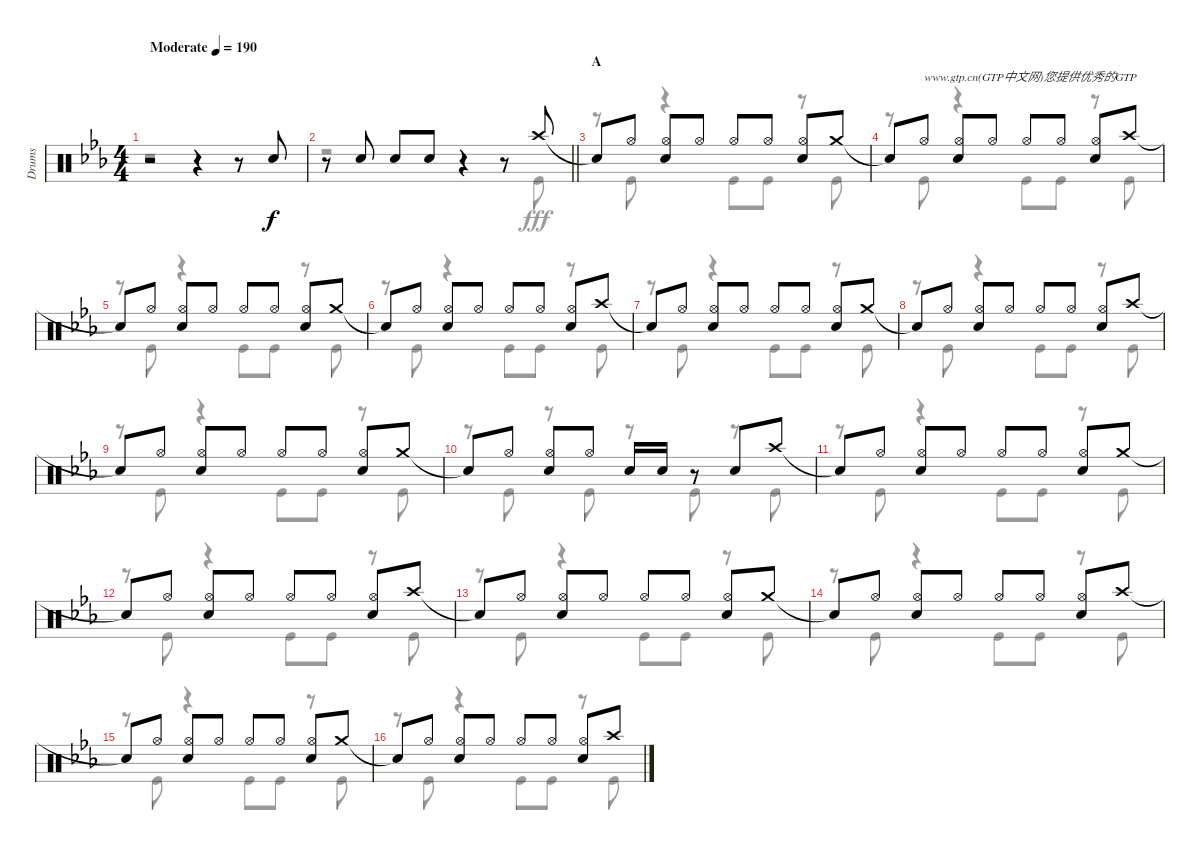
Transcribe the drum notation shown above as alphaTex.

\track ("Drums" "Drums") {instrument percussion}
\staff {score}
\articulation defaults
\voice
\ts (4 4)
\tempo (190 "Moderate")
\clef neutral
\ks eb
r.2{dy f} r.4 r.8 "Snare (hit) 2".8 |
\barLineRight lightlight
r.8 "Snare (hit) 2".8 "Snare (hit) 2".8 "Snare (hit) 2".8 r.4 r.8 "Crash high (hit)".8 |
\section ("" "A")
"Snare (hit)"{t}.8 "Hi-Hat (open)".8 ("Hi-Hat (open)" "Snare (hit) 2").8 "Hi-Hat (open)".8 "Hi-Hat (open)".8 "Hi-Hat (open)".8 ("Hi-Hat (open)" "Snare (hit) 2").8 "Crash medium (hit)".8 |
"Snare (hit)"{t}.8 "Hi-Hat (open)".8{txt "www.gtp.cn(GTP中文网)您提供优秀的GTP"} ("Hi-Hat (open)" "Snare (hit) 2").8 "Hi-Hat (open)".8 "Hi-Hat (open)".8 "Hi-Hat (open)".8 ("Hi-Hat (open)" "Snare (hit) 2").8 "Crash high (hit)".8 |
"Snare (hit)"{t}.8 "Hi-Hat (open)".8 ("Hi-Hat (open)" "Snare (hit) 2").8 "Hi-Hat (open)".8 "Hi-Hat (open)".8 "Hi-Hat (open)".8 ("Hi-Hat (open)" "Snare (hit) 2").8 "Crash medium (hit)".8 |
"Snare (hit)"{t}.8 "Hi-Hat (open)".8 ("Hi-Hat (open)" "Snare (hit) 2").8 "Hi-Hat (open)".8 "Hi-Hat (open)".8 "Hi-Hat (open)".8 ("Hi-Hat (open)" "Snare (hit) 2").8 "Crash high (hit)".8 |
"Snare (hit)"{t}.8 "Hi-Hat (open)".8 ("Hi-Hat (open)" "Snare (hit) 2").8 "Hi-Hat (open)".8 "Hi-Hat (open)".8 "Hi-Hat (open)".8 ("Hi-Hat (open)" "Snare (hit) 2").8 "Crash medium (hit)".8 |
"Snare (hit)"{t}.8 "Hi-Hat (open)".8 ("Hi-Hat (open)" "Snare (hit) 2").8 "Hi-Hat (open)".8 "Hi-Hat (open)".8 "Hi-Hat (open)".8 ("Hi-Hat (open)" "Snare (hit) 2").8 "Crash high (hit)".8 |
"Snare (hit)"{t}.8 "Hi-Hat (open)".8 ("Hi-Hat (open)" "Snare (hit) 2").8 "Hi-Hat (open)".8 "Hi-Hat (open)".8 "Hi-Hat (open)".8 ("Hi-Hat (open)" "Snare (hit) 2").8 "Crash medium (hit)".8 |
"Snare (hit)"{t}.8 "Hi-Hat (open)".8 ("Hi-Hat (open)" "Snare (hit) 2").8 "Hi-Hat (open)".8 "Snare (hit) 2".16 "Snare (hit) 2".16 r.8 "Snare (hit) 2".8 "Crash high (hit)".8 |
"Snare (hit)"{t}.8 "Hi-Hat (open)".8 ("Hi-Hat (open)" "Snare (hit) 2").8 "Hi-Hat (open)".8 "Hi-Hat (open)".8 "Hi-Hat (open)".8 ("Hi-Hat (open)" "Snare (hit) 2").8 "Crash medium (hit)".8 |
"Snare (hit)"{t}.8 "Hi-Hat (open)".8 ("Hi-Hat (open)" "Snare (hit) 2").8 "Hi-Hat (open)".8 "Hi-Hat (open)".8 "Hi-Hat (open)".8 ("Hi-Hat (open)" "Snare (hit) 2").8 "Crash high (hit)".8 |
"Snare (hit)"{t}.8 "Hi-Hat (open)".8 ("Hi-Hat (open)" "Snare (hit) 2").8 "Hi-Hat (open)".8 "Hi-Hat (open)".8 "Hi-Hat (open)".8 ("Hi-Hat (open)" "Snare (hit) 2").8 "Crash medium (hit)".8 |
"Snare (hit)"{t}.8 "Hi-Hat (open)".8 ("Hi-Hat (open)" "Snare (hit) 2").8 "Hi-Hat (open)".8 "Hi-Hat (open)".8 "Hi-Hat (open)".8 ("Hi-Hat (open)" "Snare (hit) 2").8 "Crash high (hit)".8 |
"Snare (hit)"{t}.8 "Hi-Hat (open)".8 ("Hi-Hat (open)" "Snare (hit) 2").8 "Hi-Hat (open)".8 "Hi-Hat (open)".8 "Hi-Hat (open)".8 ("Hi-Hat (open)" "Snare (hit) 2").8 "Crash medium (hit)".8 |
"Snare (hit)"{t}.8 "Hi-Hat (open)".8 ("Hi-Hat (open)" "Snare (hit) 2").8 "Hi-Hat (open)".8 "Hi-Hat (open)".8 "Hi-Hat (open)".8 ("Hi-Hat (open)" "Snare (hit) 2").8 "Crash high (hit)".8
\voice
\clef neutral
\ottava regular
\simile none
\ks eb
r.1{dy fff} |
\barLineRight lightlight
r.2 r.4 r.8 "Kick (hit)".8 |
r.8 "Kick (hit)".8 r.4 "Kick (hit)".8 "Kick (hit)".8 r.8 "Kick (hit)".8 |
r.8 "Kick (hit)".8 r.4 "Kick (hit)".8 "Kick (hit)".8 r.8 "Kick (hit)".8 |
r.8 "Kick (hit)".8 r.4 "Kick (hit)".8 "Kick (hit)".8 r.8 "Kick (hit)".8 |
r.8 "Kick (hit)".8 r.4 "Kick (hit)".8 "Kick (hit)".8 r.8 "Kick (hit)".8 |
r.8 "Kick (hit)".8 r.4 "Kick (hit)".8 "Kick (hit)".8 r.8 "Kick (hit)".8 |
r.8 "Kick (hit)".8 r.4 "Kick (hit)".8 "Kick (hit)".8 r.8 "Kick (hit)".8 |
r.8 "Kick (hit)".8 r.4 "Kick (hit)".8 "Kick (hit)".8 r.8 "Kick (hit)".8 |
r.8 "Kick (hit)".8 r.8 "Kick (hit)".8 r.8 "Kick (hit)".8 r.8 "Kick (hit)".8 |
r.8 "Kick (hit)".8 r.4 "Kick (hit)".8 "Kick (hit)".8 r.8 "Kick (hit)".8 |
r.8 "Kick (hit)".8 r.4 "Kick (hit)".8 "Kick (hit)".8 r.8 "Kick (hit)".8 |
r.8 "Kick (hit)".8 r.4 "Kick (hit)".8 "Kick (hit)".8 r.8 "Kick (hit)".8 |
r.8 "Kick (hit)".8 r.4 "Kick (hit)".8 "Kick (hit)".8 r.8 "Kick (hit)".8 |
r.8 "Kick (hit)".8 r.4 "Kick (hit)".8 "Kick (hit)".8 r.8 "Kick (hit)".8 |
r.8 "Kick (hit)".8 r.4 "Kick (hit)".8 "Kick (hit)".8 r.8 "Kick (hit)".8
